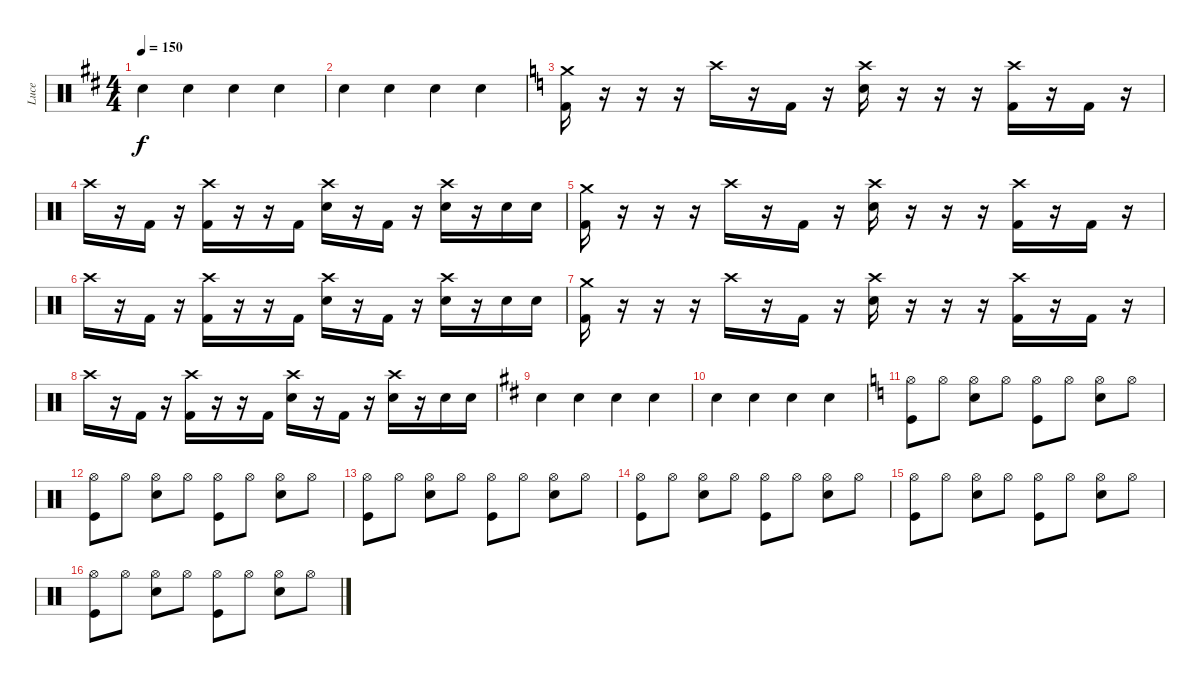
\track ("Luce" "Luce") {instrument percussion}
\staff {score}
\articulation defaults
\ts (4 4)
\tempo 150
\clef neutral
\ks d "Snare (hit) 2".4{dy f} "Snare (hit) 2".4 "Snare (hit) 2".4 "Snare (hit) 2".4
|
"Snare (hit) 2".4 "Snare (hit) 2".4 "Snare (hit) 2".4 "Snare (hit) 2".4 |
\ks c
("Crash medium (hit)" "Kick (hit) 2").16 r.16 r.16 r.16 "Crash high (hit)".16 r.16 "Kick (hit) 2".16 r.16 ("Crash high (hit)" "Electric Snare (hit)").16 r.16 r.16 r.16 ("Crash high (hit)" "Kick (hit) 2").16 r.16 "Kick (hit) 2".16 r.16 |
"Crash high (hit)".16 r.16 "Kick (hit) 2".16 r.16 ("Crash high (hit)" "Kick (hit) 2").16 r.16 r.16 "Kick (hit) 2".16 ("Crash high (hit)" "Electric Snare (hit)").16 r.16 "Kick (hit) 2".16 r.16 ("Crash high (hit)" "Electric Snare (hit)").16 r.16 "Electric Snare (hit)".16 "Electric Snare (hit)".16 |
("Crash medium (hit)" "Kick (hit) 2").16 r.16 r.16 r.16 "Crash high (hit)".16 r.16 "Kick (hit) 2".16 r.16 ("Crash high (hit)" "Electric Snare (hit)").16 r.16 r.16 r.16 ("Crash high (hit)" "Kick (hit) 2").16 r.16 "Kick (hit) 2".16 r.16 |
"Crash high (hit)".16 r.16 "Kick (hit) 2".16 r.16 ("Crash high (hit)" "Kick (hit) 2").16 r.16 r.16 "Kick (hit) 2".16 ("Crash high (hit)" "Electric Snare (hit)").16 r.16 "Kick (hit) 2".16 r.16 ("Crash high (hit)" "Electric Snare (hit)").16 r.16 "Electric Snare (hit)".16 "Electric Snare (hit)".16 |
("Crash medium (hit)" "Kick (hit) 2").16 r.16 r.16 r.16 "Crash high (hit)".16 r.16 "Kick (hit) 2".16 r.16 ("Crash high (hit)" "Electric Snare (hit)").16 r.16 r.16 r.16 ("Crash high (hit)" "Kick (hit) 2").16 r.16 "Kick (hit) 2".16 r.16 |
"Crash high (hit)".16 r.16 "Kick (hit) 2".16 r.16 ("Crash high (hit)" "Kick (hit) 2").16 r.16 r.16 "Kick (hit) 2".16 ("Crash high (hit)" "Electric Snare (hit)").16 r.16 "Kick (hit) 2".16 r.16 ("Crash high (hit)" "Electric Snare (hit)").16 r.16 "Electric Snare (hit)".16 "Electric Snare (hit)".16 |
\ks d "Snare (hit) 2".4 "Snare (hit) 2".4 "Snare (hit) 2".4 "Snare (hit) 2".4
|
"Snare (hit) 2".4 "Snare (hit) 2".4 "Snare (hit) 2".4 "Snare (hit) 2".4 |
\ks c
("Hi-Hat (open)" "Kick (hit)").8 "Hi-Hat (open)".8 ("Hi-Hat (open)" "Snare (hit) 2").8 "Hi-Hat (open)".8 ("Hi-Hat (open)" "Kick (hit)").8 "Hi-Hat (open)".8 ("Hi-Hat (open)" "Snare (hit) 2").8 "Hi-Hat (open)".8 |
("Hi-Hat (open)" "Kick (hit)").8 "Hi-Hat (open)".8 ("Hi-Hat (open)" "Snare (hit) 2").8 "Hi-Hat (open)".8 ("Hi-Hat (open)" "Kick (hit)").8 "Hi-Hat (open)".8 ("Hi-Hat (open)" "Snare (hit) 2").8 "Hi-Hat (open)".8 |
("Hi-Hat (open)" "Kick (hit)").8 "Hi-Hat (open)".8 ("Hi-Hat (open)" "Snare (hit) 2").8 "Hi-Hat (open)".8 ("Hi-Hat (open)" "Kick (hit)").8 "Hi-Hat (open)".8 ("Hi-Hat (open)" "Snare (hit) 2").8 "Hi-Hat (open)".8 |
("Hi-Hat (open)" "Kick (hit)").8 "Hi-Hat (open)".8 ("Hi-Hat (open)" "Snare (hit) 2").8 "Hi-Hat (open)".8 ("Hi-Hat (open)" "Kick (hit)").8 "Hi-Hat (open)".8 ("Hi-Hat (open)" "Snare (hit) 2").8 "Hi-Hat (open)".8 |
("Hi-Hat (open)" "Kick (hit)").8 "Hi-Hat (open)".8 ("Hi-Hat (open)" "Snare (hit) 2").8 "Hi-Hat (open)".8 ("Hi-Hat (open)" "Kick (hit)").8 "Hi-Hat (open)".8 ("Hi-Hat (open)" "Snare (hit) 2").8 "Hi-Hat (open)".8 |
("Hi-Hat (open)" "Kick (hit)").8 "Hi-Hat (open)".8 ("Hi-Hat (open)" "Snare (hit) 2").8 "Hi-Hat (open)".8 ("Hi-Hat (open)" "Kick (hit)").8 "Hi-Hat (open)".8 ("Hi-Hat (open)" "Snare (hit) 2").8 "Hi-Hat (open)".8
